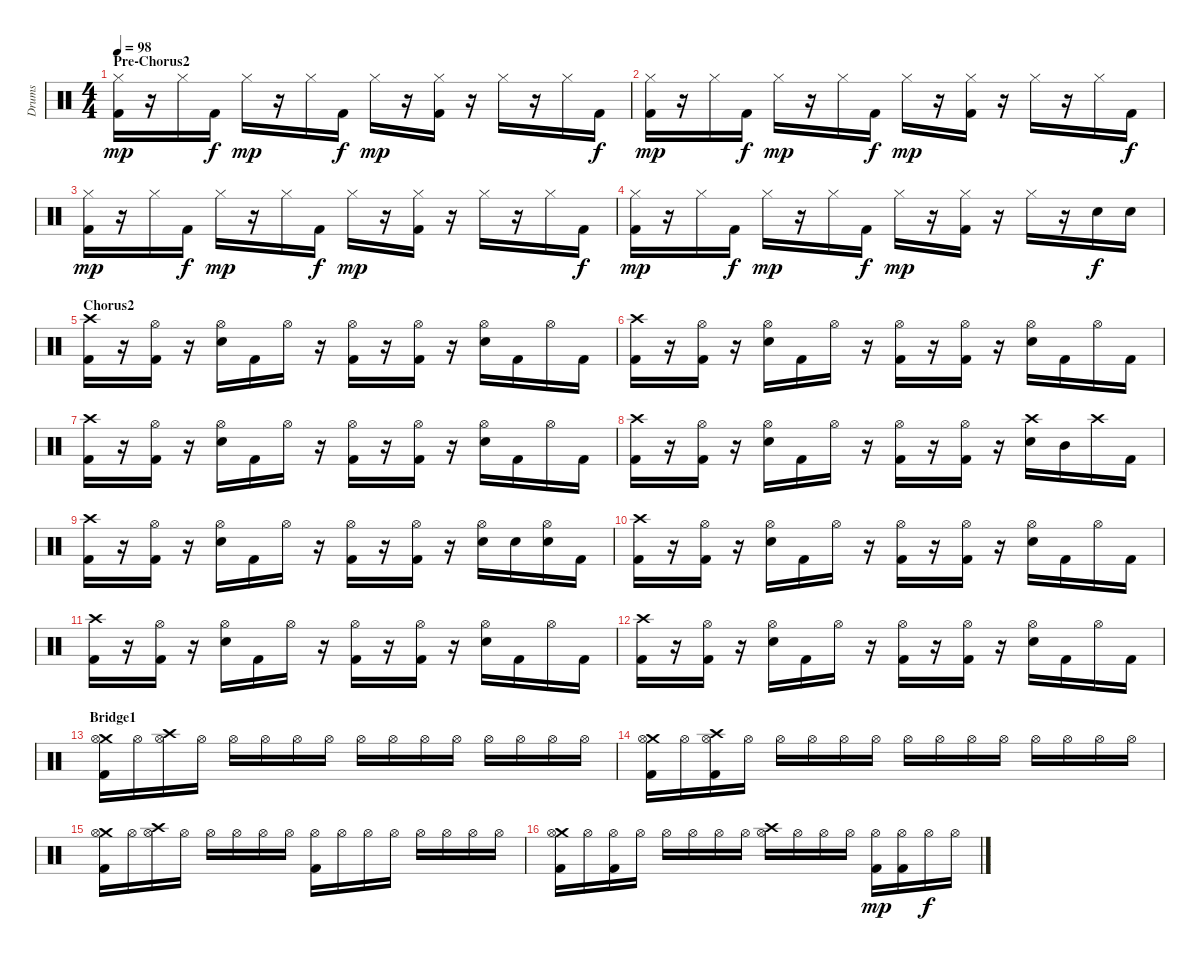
\track ("Drums" "Drums") {instrument percussion}
\staff {score}
\articulation defaults
\ts (4 4)
\section ("" "Pre-Chorus2")
\tempo 98
\clef neutral
\ks c
("Hi-Hat (closed)" "Kick (hit) 2").16{dy mp} r.16 "Hi-Hat (closed)".16 "Kick (hit) 2".16{dy f} "Hi-Hat (closed)".16{dy mp} r.16 "Hi-Hat (closed)".16 "Kick (hit) 2".16{dy f} "Hi-Hat (closed)".16{dy mp} r.16 ("Hi-Hat (closed)" "Kick (hit) 2").16 r.16 "Hi-Hat (closed)".16 r.16 "Hi-Hat (closed)".16 "Kick (hit) 2".16{dy f} |
("Hi-Hat (closed)" "Kick (hit) 2").16{dy mp} r.16 "Hi-Hat (closed)".16 "Kick (hit) 2".16{dy f} "Hi-Hat (closed)".16{dy mp} r.16 "Hi-Hat (closed)".16 "Kick (hit) 2".16{dy f} "Hi-Hat (closed)".16{dy mp} r.16 ("Hi-Hat (closed)" "Kick (hit) 2").16 r.16 "Hi-Hat (closed)".16 r.16 "Hi-Hat (closed)".16 "Kick (hit) 2".16{dy f} |
("Hi-Hat (closed)" "Kick (hit) 2").16{dy mp} r.16 "Hi-Hat (closed)".16 "Kick (hit) 2".16{dy f} "Hi-Hat (closed)".16{dy mp} r.16 "Hi-Hat (closed)".16 "Kick (hit) 2".16{dy f} "Hi-Hat (closed)".16{dy mp} r.16 ("Hi-Hat (closed)" "Kick (hit) 2").16 r.16 "Hi-Hat (closed)".16 r.16 "Hi-Hat (closed)".16 "Kick (hit) 2".16{dy f} |
("Hi-Hat (closed)" "Kick (hit) 2").16{dy mp} r.16 "Hi-Hat (closed)".16 "Kick (hit) 2".16{dy f} "Hi-Hat (closed)".16{dy mp} r.16 "Hi-Hat (closed)".16 "Kick (hit) 2".16{dy f} "Hi-Hat (closed)".16{dy mp} r.16 ("Hi-Hat (closed)" "Kick (hit) 2").16 r.16 "Hi-Hat (closed)".16 r.16 "Snare (hit) 2".16{dy f} "Snare (hit) 2".16 |
\section ("" "Chorus2")
("Crash high (hit)" "Kick (hit) 2").16 r.16 ("Hi-Hat (open)" "Kick (hit) 2").16 r.16 ("Hi-Hat (open)" "Snare (hit) 2").16 "Kick (hit) 2".16 "Hi-Hat (open)".16 r.16 ("Hi-Hat (open)" "Kick (hit) 2").16 r.16 ("Hi-Hat (open)" "Kick (hit) 2").16 r.16 ("Hi-Hat (open)" "Snare (hit) 2").16 "Kick (hit) 2".16 "Hi-Hat (open)".16 "Kick (hit) 2".16 |
("Crash high (hit)" "Kick (hit) 2").16 r.16 ("Hi-Hat (open)" "Kick (hit) 2").16 r.16 ("Hi-Hat (open)" "Snare (hit) 2").16 "Kick (hit) 2".16 "Hi-Hat (open)".16 r.16 ("Hi-Hat (open)" "Kick (hit) 2").16 r.16 ("Hi-Hat (open)" "Kick (hit) 2").16 r.16 ("Hi-Hat (open)" "Snare (hit) 2").16 "Kick (hit) 2".16 "Hi-Hat (open)".16 "Kick (hit) 2".16 |
("Crash high (hit)" "Kick (hit) 2").16 r.16 ("Hi-Hat (open)" "Kick (hit) 2").16 r.16 ("Hi-Hat (open)" "Snare (hit) 2").16 "Kick (hit) 2".16 "Hi-Hat (open)".16 r.16 ("Hi-Hat (open)" "Kick (hit) 2").16 r.16 ("Hi-Hat (open)" "Kick (hit) 2").16 r.16 ("Hi-Hat (open)" "Snare (hit) 2").16 "Kick (hit) 2".16 "Hi-Hat (open)".16 "Kick (hit) 2".16 |
("Crash high (hit)" "Kick (hit) 2").16 r.16 ("Hi-Hat (open)" "Kick (hit) 2").16 r.16 ("Hi-Hat (open)" "Snare (hit) 2").16 "Kick (hit) 2".16 "Hi-Hat (open)".16 r.16 ("Hi-Hat (open)" "Kick (hit) 2").16 r.16 ("Hi-Hat (open)" "Kick (hit) 2").16 r.16 ("Crash high (hit)" "Snare (hit) 2").16 "Mid Tom (hit)".16 "Crash high (hit)".16 "Kick (hit) 2".16 |
("Crash high (hit)" "Kick (hit) 2").16 r.16 ("Hi-Hat (open)" "Kick (hit) 2").16 r.16 ("Hi-Hat (open)" "Snare (hit) 2").16 "Kick (hit) 2".16 "Hi-Hat (open)".16 r.16 ("Hi-Hat (open)" "Kick (hit) 2").16 r.16 ("Hi-Hat (open)" "Kick (hit) 2").16 r.16 ("Hi-Hat (open)" "Snare (hit) 2").16 "Snare (hit) 2".16 ("Hi-Hat (open)" "Snare (hit) 2").16 "Kick (hit) 2".16 |
("Crash high (hit)" "Kick (hit) 2").16 r.16 ("Hi-Hat (open)" "Kick (hit) 2").16 r.16 ("Hi-Hat (open)" "Snare (hit) 2").16 "Kick (hit) 2".16 "Hi-Hat (open)".16 r.16 ("Hi-Hat (open)" "Kick (hit) 2").16 r.16 ("Hi-Hat (open)" "Kick (hit) 2").16 r.16 ("Hi-Hat (open)" "Snare (hit) 2").16 "Kick (hit) 2".16 "Hi-Hat (open)".16 "Kick (hit) 2".16 |
("Crash high (hit)" "Kick (hit) 2").16 r.16 ("Hi-Hat (open)" "Kick (hit) 2").16 r.16 ("Hi-Hat (open)" "Snare (hit) 2").16 "Kick (hit) 2".16 "Hi-Hat (open)".16 r.16 ("Hi-Hat (open)" "Kick (hit) 2").16 r.16 ("Hi-Hat (open)" "Kick (hit) 2").16 r.16 ("Hi-Hat (open)" "Snare (hit) 2").16 "Kick (hit) 2".16 "Hi-Hat (open)".16 "Kick (hit) 2".16 |
("Crash high (hit)" "Kick (hit) 2").16 r.16 ("Hi-Hat (open)" "Kick (hit) 2").16 r.16 ("Hi-Hat (open)" "Snare (hit) 2").16 "Kick (hit) 2".16 "Hi-Hat (open)".16 r.16 ("Hi-Hat (open)" "Kick (hit) 2").16 r.16 ("Hi-Hat (open)" "Kick (hit) 2").16 r.16 ("Hi-Hat (open)" "Snare (hit) 2").16 "Kick (hit) 2".16 "Hi-Hat (open)".16 "Kick (hit) 2".16 |
\section ("" "Bridge1")
("Crash medium (hit)" "Hi-Hat (open)" "Kick (hit) 2").16 "Hi-Hat (open)".16 ("Crash high (hit)" "Hi-Hat (open)").16 "Hi-Hat (open)".16 "Hi-Hat (open)".16 "Hi-Hat (open)".16 "Hi-Hat (open)".16 "Hi-Hat (open)".16 "Hi-Hat (open)".16 "Hi-Hat (open)".16 "Hi-Hat (open)".16 "Hi-Hat (open)".16 "Hi-Hat (open)".16 "Hi-Hat (open)".16 "Hi-Hat (open)".16 "Hi-Hat (open)".16 |
("Crash medium (hit)" "Hi-Hat (open)" "Kick (hit) 2").16 "Hi-Hat (open)".16 ("Crash high (hit)" "Hi-Hat (open)" "Kick (hit) 2").16 "Hi-Hat (open)".16 "Hi-Hat (open)".16 "Hi-Hat (open)".16 "Hi-Hat (open)".16 "Hi-Hat (open)".16 "Hi-Hat (open)".16 "Hi-Hat (open)".16 "Hi-Hat (open)".16 "Hi-Hat (open)".16 "Hi-Hat (open)".16 "Hi-Hat (open)".16 "Hi-Hat (open)".16 "Hi-Hat (open)".16 |
("Crash medium (hit)" "Hi-Hat (open)" "Kick (hit) 2").16 "Hi-Hat (open)".16 ("Crash high (hit)" "Hi-Hat (open)").16 "Hi-Hat (open)".16 "Hi-Hat (open)".16 "Hi-Hat (open)".16 "Hi-Hat (open)".16 "Hi-Hat (open)".16 ("Hi-Hat (open)" "Kick (hit) 2").16 "Hi-Hat (open)".16 "Hi-Hat (open)".16 "Hi-Hat (open)".16 "Hi-Hat (open)".16 "Hi-Hat (open)".16 "Hi-Hat (open)".16 "Hi-Hat (open)".16 |
("Crash medium (hit)" "Hi-Hat (open)" "Kick (hit) 2").16 "Hi-Hat (open)".16 ("Hi-Hat (open)" "Kick (hit) 2").16 "Hi-Hat (open)".16 "Hi-Hat (open)".16 "Hi-Hat (open)".16 "Hi-Hat (open)".16 "Hi-Hat (open)".16 ("Crash high (hit)" "Hi-Hat (open)").16 "Hi-Hat (open)".16 "Hi-Hat (open)".16 "Hi-Hat (open)".16 ("Hi-Hat (open)" "Kick (hit) 2").16{dy mp} ("Hi-Hat (open)" "Kick (hit) 2").16 "Hi-Hat (open)".16{dy f} "Hi-Hat (open)".16
